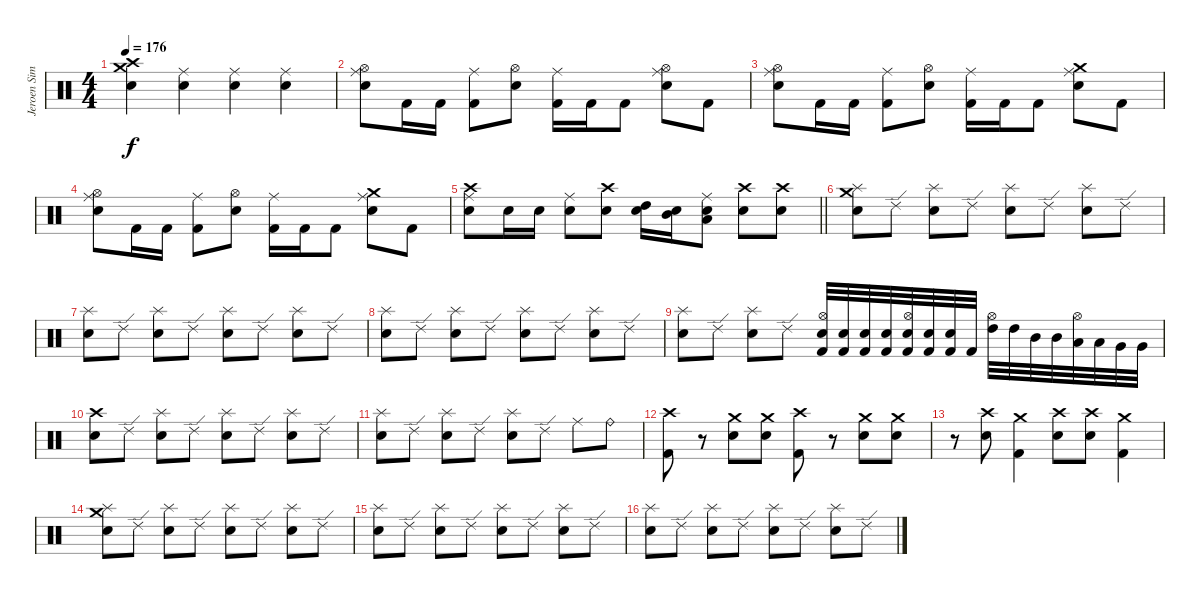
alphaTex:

\track ("Jeroen Simons" "Jeroen Sim") {instrument percussion}
\staff {score}
\articulation defaults
\ts (4 4)
\tempo 176
\clef neutral
\ks c
("Crash high (hit)" "Crash medium (hit)" "Electric Snare (hit)").4{dy f} ("Ride (middle)" "Electric Snare (hit)").4 ("Ride (middle)" "Electric Snare (hit)").4 ("Ride (middle)" "Electric Snare (hit)").4 |
("Hi-Hat (open)" "Ride (middle)" "Electric Snare (hit)").8 "Kick (hit) 2".16 "Kick (hit) 2".16 ("Ride (middle)" "Kick (hit) 2").8 ("Hi-Hat (open)" "Electric Snare (hit)").8 ("Ride (middle)" "Kick (hit) 2").16 "Kick (hit) 2".16 "Kick (hit) 2".8 ("Hi-Hat (open)" "Ride (middle)" "Electric Snare (hit)").8 "Kick (hit) 2".8 |
("Hi-Hat (open)" "Ride (middle)" "Electric Snare (hit)").8 "Kick (hit) 2".16 "Kick (hit) 2".16 ("Ride (middle)" "Kick (hit) 2").8 ("Hi-Hat (open)" "Electric Snare (hit)").8 ("Ride (middle)" "Kick (hit) 2").16 "Kick (hit) 2".16 "Kick (hit) 2".8 ("Crash medium (hit)" "Ride (middle)" "Electric Snare (hit)").8 "Kick (hit) 2".8 |
("Hi-Hat (open)" "Ride (middle)" "Electric Snare (hit)").8 "Kick (hit) 2".16 "Kick (hit) 2".16 ("Ride (middle)" "Kick (hit) 2").8 ("Hi-Hat (open)" "Electric Snare (hit)").8 ("Ride (middle)" "Kick (hit) 2").16 "Kick (hit) 2".16 "Kick (hit) 2".8 ("Crash medium (hit)" "Ride (middle)" "Electric Snare (hit)").8 "Kick (hit) 2".8 |
\barLineRight lightlight
("Crash high (hit)" "Ride (middle)" "Electric Snare (hit)").8 "Electric Snare (hit)".16 "Electric Snare (hit)".16 ("Ride (middle)" "Electric Snare (hit)").8 ("Crash high (hit)" "Electric Snare (hit)").8 ("High Tom (hit)" "Electric Snare (hit)").16 ("Mid Tom (hit)" "Electric Snare (hit)").16 ("Ride (middle)" "Low Tom (hit)" "Electric Snare (hit)").8 ("Crash high (hit)" "Electric Snare (hit)").8 ("Crash high (hit)" "Electric Snare (hit)").8 |
\section ("" "")
("Crash medium (hit)" "Splash (hit)" "Electric Snare (hit)").8 "Ride (edge) 2".8 ("Splash (hit)" "Electric Snare (hit)").8 "Ride (edge) 2".8 ("Splash (hit)" "Electric Snare (hit)").8 "Ride (edge) 2".8 ("Splash (hit)" "Electric Snare (hit)").8 "Ride (edge) 2".8 |
("Splash (hit)" "Electric Snare (hit)").8 "Ride (edge) 2".8 ("Splash (hit)" "Electric Snare (hit)").8 "Ride (edge) 2".8 ("Splash (hit)" "Electric Snare (hit)").8 "Ride (edge) 2".8 ("Splash (hit)" "Electric Snare (hit)").8 "Ride (edge) 2".8 |
("Splash (hit)" "Electric Snare (hit)").8 "Ride (edge) 2".8 ("Splash (hit)" "Electric Snare (hit)").8 "Ride (edge) 2".8 ("Splash (hit)" "Electric Snare (hit)").8 "Ride (edge) 2".8 ("Splash (hit)" "Electric Snare (hit)").8 "Ride (edge) 2".8 |
("Splash (hit)" "Electric Snare (hit)").8 "Ride (edge) 2".8 ("Splash (hit)" "Electric Snare (hit)").8 "Ride (edge) 2".8 ("Hi-Hat (open)" "Electric Snare (hit)" "Kick (hit) 2").32 ("Electric Snare (hit)" "Kick (hit) 2").32 ("Electric Snare (hit)" "Kick (hit) 2").32 ("Electric Snare (hit)" "Kick (hit) 2").32 ("Hi-Hat (open)" "Electric Snare (hit)" "Kick (hit) 2").32 ("Electric Snare (hit)" "Kick (hit) 2").32 ("Electric Snare (hit)" "Kick (hit) 2").32 "Kick (hit) 2".32 ("Hi-Hat (open)" "High Tom (hit)").32 "High Tom (hit)".32 "Mid Tom (hit)".32 "Mid Tom (hit)".32 ("Hi-Hat (open)" "Low Tom (hit)").32 "Low Tom (hit)".32 "Very Low Tom (hit)".32 "Very Low Tom (hit)".32 |
("Crash high (hit)" "Electric Snare (hit)").8 "Ride (edge) 2".8 ("Splash (hit)" "Electric Snare (hit)").8 "Ride (edge) 2".8 ("Splash (hit)" "Electric Snare (hit)").8 "Ride (edge) 2".8 ("Splash (hit)" "Electric Snare (hit)").8 "Ride (edge) 2".8 |
("Splash (hit)" "Electric Snare (hit)").8 "Ride (edge) 2".8 ("Splash (hit)" "Electric Snare (hit)").8 "Ride (edge) 2".8 ("Splash (hit)" "Electric Snare (hit)").8 "Ride (edge) 2".8 "Ride (middle)".8 "Ride (bell)".8 |
("Crash high (hit)" "Kick (hit) 2").8 r.8 ("Crash medium (hit)" "Electric Snare (hit)").8 ("Crash medium (hit)" "Electric Snare (hit)").8 ("Crash high (hit)" "Kick (hit) 2").8 r.8 ("Crash medium (hit)" "Electric Snare (hit)").8 ("Crash medium (hit)" "Electric Snare (hit)").8 |
r.8 ("Crash high (hit)" "Electric Snare (hit)").8 ("Crash medium (hit)" "Kick (hit) 2").4 ("Crash high (hit)" "Electric Snare (hit)").8 ("Crash high (hit)" "Electric Snare (hit)").8 ("Crash medium (hit)" "Kick (hit) 2").4 |
("Crash medium (hit)" "Splash (hit)" "Electric Snare (hit)").8 "Ride (edge) 2".8 ("Splash (hit)" "Electric Snare (hit)").8 "Ride (edge) 2".8 ("Splash (hit)" "Electric Snare (hit)").8 "Ride (edge) 2".8 ("Splash (hit)" "Electric Snare (hit)").8 "Ride (edge) 2".8 |
("Splash (hit)" "Electric Snare (hit)").8 "Ride (edge) 2".8 ("Splash (hit)" "Electric Snare (hit)").8 "Ride (edge) 2".8 ("Splash (hit)" "Electric Snare (hit)").8 "Ride (edge) 2".8 ("Splash (hit)" "Electric Snare (hit)").8 "Ride (edge) 2".8 |
("Splash (hit)" "Electric Snare (hit)").8 "Ride (edge) 2".8 ("Splash (hit)" "Electric Snare (hit)").8 "Ride (edge) 2".8 ("Splash (hit)" "Electric Snare (hit)").8 "Ride (edge) 2".8 ("Splash (hit)" "Electric Snare (hit)").8 "Ride (edge) 2".8
